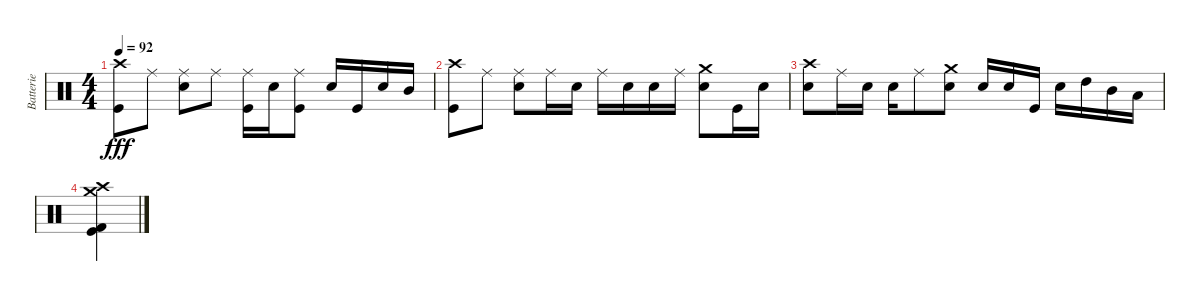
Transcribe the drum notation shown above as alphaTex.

\track ("Batterie" "Batterie") {instrument percussion}
\staff {score}
\articulation defaults
\ts (4 4)
\tempo 92
\clef neutral
\ks c
("Crash high (hit)" "Kick (hit)").8{dy fff} "Ride (middle)".8 ("Ride (middle)" "Electric Snare (hit)").8 "Ride (middle)".8 ("Ride (middle)" "Kick (hit)").16 "Electric Snare (hit)".16 ("Ride (middle)" "Kick (hit)").8 "Electric Snare (hit)".16 "Kick (hit)".16 "Electric Snare (hit)".16 "Mid Tom (hit)".16 |
("Crash high (hit)" "Kick (hit)").8 "Ride (middle)".8 ("Ride (middle)" "Electric Snare (hit)").8 "Ride (middle)".16 "Electric Snare (hit)".16 "Ride (middle)".16 "Electric Snare (hit)".16 "Electric Snare (hit)".16 "Ride (middle)".16 ("Crash medium (hit)" "Electric Snare (hit)").8 "Kick (hit)".16 "Electric Snare (hit)".16 |
("Crash high (hit)" "Electric Snare (hit)").8 "Ride (middle)".16 "Electric Snare (hit)".16 "Electric Snare (hit)".16 "Ride (middle)".8 ("Crash medium (hit)" "Electric Snare (hit)").8 "Electric Snare (hit)".16 "Electric Snare (hit)".16 "Kick (hit)".16 "Electric Snare (hit)".16 "High Tom (hit)".16 "Mid Tom (hit)".16 "Low Floor Tom (hit)".16 |
("Crash high (hit)" "Crash medium (hit)" "Kick (hit)" "Kick (hit) 2").4
